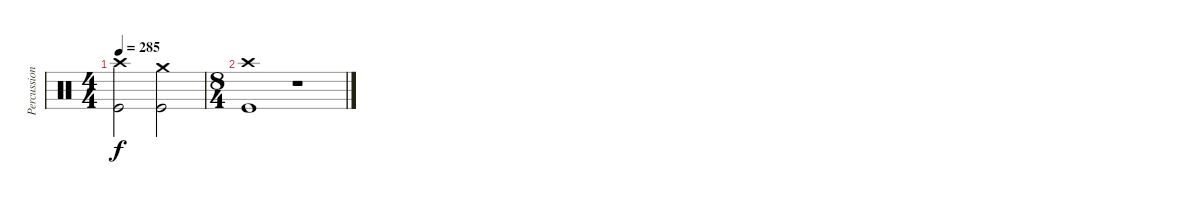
\track ("Percussion" "Percussion") {instrument percussion}
\staff {score}
\articulation defaults
\ts (4 4)
\tempo 285
\clef neutral
\ks c
("Crash high (hit)" "Kick (hit)").2{dy f} ("Crash medium (hit)" "Kick (hit)").2 |
\ts (8 4)
("Crash high (hit)" "Kick (hit)").1 r.1
